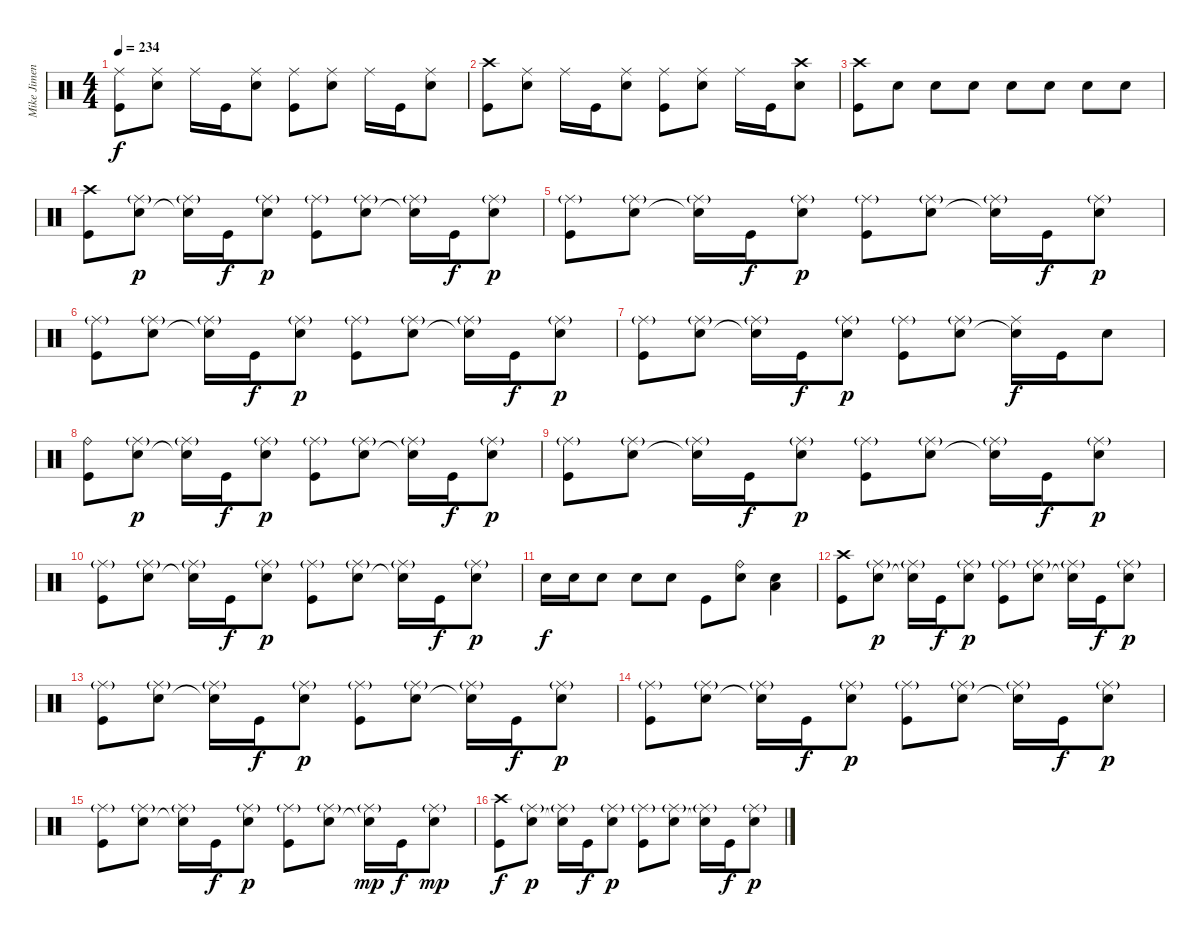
\track ("Mike Jimenez" "Mike Jimen") {instrument percussion}
\staff {score}
\articulation defaults
\ts (4 4)
\tempo 234
\clef neutral
\ks c
("Ride (middle)" "Kick (hit)").8{dy f} ("Ride (middle)" "Electric Snare (hit)").8 "Ride (middle)".16 "Kick (hit)".16 ("Ride (middle)" "Electric Snare (hit)").8 ("Ride (middle)" "Kick (hit)").8 ("Ride (middle)" "Electric Snare (hit)").8 "Ride (middle)".16 "Kick (hit)".16 ("Ride (middle)" "Electric Snare (hit)").8 |
("Crash high (hit)" "Kick (hit)").8 ("Ride (middle)" "Electric Snare (hit)").8 "Ride (middle)".16 "Kick (hit)".16 ("Ride (middle)" "Electric Snare (hit)").8 ("Ride (middle)" "Kick (hit)").8 ("Ride (middle)" "Electric Snare (hit)").8 "Ride (middle)".16 "Kick (hit)".16 ("Crash high (hit)" "Electric Snare (hit)").8 |
("Crash high (hit)" "Kick (hit)").8 "Electric Snare (hit)".8 "Electric Snare (hit)".8 "Electric Snare (hit)".8 "Electric Snare (hit)".8 "Electric Snare (hit)".8 "Electric Snare (hit)".8 "Electric Snare (hit)".8 |
("Crash high (hit)" "Kick (hit)").8 ("Ride (middle)"{g} "Electric Snare (hit)").8{dy p} ("Ride (middle)"{g} "Snare (hit)"{t}).16 "Kick (hit)".16{dy f} ("Ride (middle)"{g} "Electric Snare (hit)").8{dy p} ("Ride (middle)"{g} "Kick (hit)").8 ("Ride (middle)"{g} "Electric Snare (hit)").8 ("Ride (middle)"{g} "Snare (hit)"{t}).16 "Kick (hit)".16{dy f} ("Ride (middle)"{g} "Electric Snare (hit)").8{dy p} |
("Ride (middle)"{g} "Kick (hit)").8 ("Ride (middle)"{g} "Electric Snare (hit)").8 ("Ride (middle)"{g} "Snare (hit)"{t}).16 "Kick (hit)".16{dy f} ("Ride (middle)"{g} "Electric Snare (hit)").8{dy p} ("Ride (middle)"{g} "Kick (hit)").8 ("Ride (middle)"{g} "Electric Snare (hit)").8 ("Ride (middle)"{g} "Snare (hit)"{t}).16 "Kick (hit)".16{dy f} ("Ride (middle)"{g} "Electric Snare (hit)").8{dy p} |
("Ride (middle)"{g} "Kick (hit)").8 ("Ride (middle)"{g} "Electric Snare (hit)").8 ("Ride (middle)"{g} "Snare (hit)"{t}).16 "Kick (hit)".16{dy f} ("Ride (middle)"{g} "Electric Snare (hit)").8{dy p} ("Ride (middle)"{g} "Kick (hit)").8 ("Ride (middle)"{g} "Electric Snare (hit)").8 ("Ride (middle)"{g} "Snare (hit)"{t}).16 "Kick (hit)".16{dy f} ("Ride (middle)"{g} "Electric Snare (hit)").8{dy p} |
("Ride (middle)"{g} "Kick (hit)").8 ("Ride (middle)"{g} "Electric Snare (hit)").8 ("Ride (middle)"{g} "Snare (hit)"{t}).16 "Kick (hit)".16{dy f} ("Ride (middle)"{g} "Electric Snare (hit)").8{dy p} ("Ride (middle)"{g} "Kick (hit)").8 ("Ride (middle)"{g} "Electric Snare (hit)").8 ("Ride (middle)" "Snare (hit)"{t}).16{dy f} "Kick (hit)".16 "Electric Snare (hit)".8 |
("Ride (bell)" "Kick (hit)").8 ("Ride (middle)"{g} "Electric Snare (hit)").8{dy p} ("Ride (middle)"{g} "Snare (hit)"{t}).16 "Kick (hit)".16{dy f} ("Ride (middle)"{g} "Electric Snare (hit)").8{dy p} ("Ride (middle)"{g} "Kick (hit)").8 ("Ride (middle)"{g} "Electric Snare (hit)").8 ("Ride (middle)"{g} "Snare (hit)"{t}).16 "Kick (hit)".16{dy f} ("Ride (middle)"{g} "Electric Snare (hit)").8{dy p} |
("Ride (middle)"{g} "Kick (hit)").8 ("Ride (middle)"{g} "Electric Snare (hit)").8 ("Ride (middle)"{g} "Snare (hit)"{t}).16 "Kick (hit)".16{dy f} ("Ride (middle)"{g} "Electric Snare (hit)").8{dy p} ("Ride (middle)"{g} "Kick (hit)").8 ("Ride (middle)"{g} "Electric Snare (hit)").8 ("Ride (middle)"{g} "Snare (hit)"{t}).16 "Kick (hit)".16{dy f} ("Ride (middle)"{g} "Electric Snare (hit)").8{dy p} |
("Ride (middle)"{g} "Kick (hit)").8 ("Ride (middle)"{g} "Electric Snare (hit)").8 ("Ride (middle)"{g} "Snare (hit)"{t}).16 "Kick (hit)".16{dy f} ("Ride (middle)"{g} "Electric Snare (hit)").8{dy p} ("Ride (middle)"{g} "Kick (hit)").8 ("Ride (middle)"{g} "Electric Snare (hit)").8 ("Ride (middle)"{g} "Snare (hit)"{t}).16 "Kick (hit)".16{dy f} ("Ride (middle)"{g} "Electric Snare (hit)").8{dy p} |
"Electric Snare (hit)".16{dy f} "Electric Snare (hit)".16 "Electric Snare (hit)".8 "Electric Snare (hit)".8 "Electric Snare (hit)".8 "Kick (hit)".8 ("Ride (bell)" "Electric Snare (hit)").8 ("Low Tom (hit)" "Electric Snare (hit)").4 |
("Crash high (hit)" "Kick (hit)").8 ("Ride (middle)"{g} "Electric Snare (hit)").8{dy p} ("Ride (middle)"{g} "Snare (hit)"{t}).16 "Kick (hit)".16{dy f} ("Ride (middle)"{g} "Electric Snare (hit)").8{dy p} ("Ride (middle)"{g} "Kick (hit)").8 ("Ride (middle)"{g} "Electric Snare (hit)").8 ("Ride (middle)"{g} "Snare (hit)"{t}).16 "Kick (hit)".16{dy f} ("Ride (middle)"{g} "Electric Snare (hit)").8{dy p} |
("Ride (middle)"{g} "Kick (hit)").8 ("Ride (middle)"{g} "Electric Snare (hit)").8 ("Ride (middle)"{g} "Snare (hit)"{t}).16 "Kick (hit)".16{dy f} ("Ride (middle)"{g} "Electric Snare (hit)").8{dy p} ("Ride (middle)"{g} "Kick (hit)").8 ("Ride (middle)"{g} "Electric Snare (hit)").8 ("Ride (middle)"{g} "Snare (hit)"{t}).16 "Kick (hit)".16{dy f} ("Ride (middle)"{g} "Electric Snare (hit)").8{dy p} |
("Ride (middle)"{g} "Kick (hit)").8 ("Ride (middle)"{g} "Electric Snare (hit)").8 ("Ride (middle)"{g} "Snare (hit)"{t}).16 "Kick (hit)".16{dy f} ("Ride (middle)"{g} "Electric Snare (hit)").8{dy p} ("Ride (middle)"{g} "Kick (hit)").8 ("Ride (middle)"{g} "Electric Snare (hit)").8 ("Ride (middle)"{g} "Snare (hit)"{t}).16 "Kick (hit)".16{dy f} ("Ride (middle)"{g} "Electric Snare (hit)").8{dy p} |
("Ride (middle)"{g} "Kick (hit)").8 ("Ride (middle)"{g} "Electric Snare (hit)").8 ("Ride (middle)"{g} "Snare (hit)"{t}).16 "Kick (hit)".16{dy f} ("Ride (middle)"{g} "Electric Snare (hit)").8{dy p} ("Ride (middle)"{g} "Kick (hit)").8 ("Ride (middle)"{g} "Electric Snare (hit)").8 ("Ride (middle)"{g} "Snare (hit)"{t}).16{dy mp} "Kick (hit)".16{dy f} ("Ride (middle)"{g} "Electric Snare (hit)").8{dy mp} |
("Crash high (hit)" "Kick (hit)").8{dy f} ("Ride (middle)"{g} "Electric Snare (hit)").8{dy p} ("Ride (middle)"{g} "Snare (hit)"{t}).16 "Kick (hit)".16{dy f} ("Ride (middle)"{g} "Electric Snare (hit)").8{dy p} ("Ride (middle)"{g} "Kick (hit)").8 ("Ride (middle)"{g} "Electric Snare (hit)").8 ("Ride (middle)"{g} "Snare (hit)"{t}).16 "Kick (hit)".16{dy f} ("Ride (middle)"{g} "Electric Snare (hit)").8{dy p}
